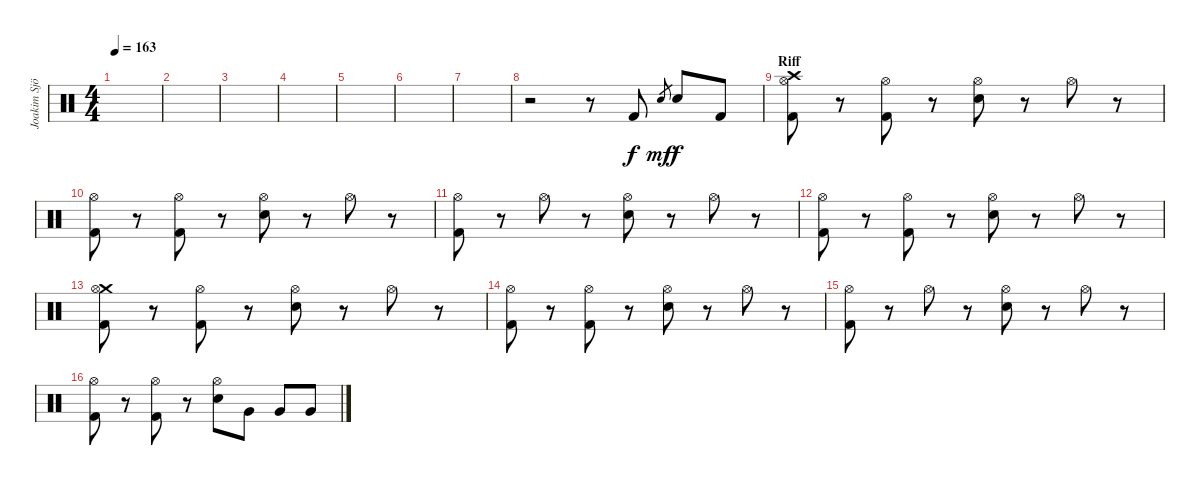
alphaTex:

\track ("Joakim Sjöberg" "Joakim Sjö") {instrument percussion}
\staff {score}
\articulation defaults
\ts (4 4)
\tempo 163
\clef neutral
\ks c
|
|
|
|
|
|
|
r.2 r.8 "Kick (hit) 2".8 "Electric Snare (hit)".8{gr dy mf} "Electric Snare (hit)".8{dy f} "Kick (hit) 2".8 |
\section ("" "Riff")
("Crash high (hit)" "Hi-Hat (open)" "Kick (hit) 2").8 r.8 ("Hi-Hat (open)" "Kick (hit) 2").8 r.8 ("Hi-Hat (open)" "Electric Snare (hit)").8 r.8 "Hi-Hat (open)".8 r.8 |
("Hi-Hat (open)" "Kick (hit) 2").8 r.8 ("Hi-Hat (open)" "Kick (hit) 2").8 r.8 ("Hi-Hat (open)" "Electric Snare (hit)").8 r.8 "Hi-Hat (open)".8 r.8 |
("Hi-Hat (open)" "Kick (hit) 2").8 r.8 "Hi-Hat (open)".8 r.8 ("Hi-Hat (open)" "Electric Snare (hit)").8 r.8 "Hi-Hat (open)".8 r.8 |
("Hi-Hat (open)" "Kick (hit) 2").8 r.8 ("Hi-Hat (open)" "Kick (hit) 2").8 r.8 ("Hi-Hat (open)" "Electric Snare (hit)").8 r.8 "Hi-Hat (open)".8 r.8 |
("Crash medium (hit)" "Hi-Hat (open)" "Kick (hit) 2").8 r.8 ("Hi-Hat (open)" "Kick (hit) 2").8 r.8 ("Hi-Hat (open)" "Electric Snare (hit)").8 r.8 "Hi-Hat (open)".8 r.8 |
("Hi-Hat (open)" "Kick (hit) 2").8 r.8 ("Hi-Hat (open)" "Kick (hit) 2").8 r.8 ("Hi-Hat (open)" "Electric Snare (hit)").8 r.8 "Hi-Hat (open)".8 r.8 |
("Hi-Hat (open)" "Kick (hit) 2").8 r.8 "Hi-Hat (open)".8 r.8 ("Hi-Hat (open)" "Electric Snare (hit)").8 r.8 "Hi-Hat (open)".8 r.8 |
("Hi-Hat (open)" "Kick (hit) 2").8 r.8 ("Hi-Hat (open)" "Kick (hit) 2").8 r.8 ("Hi-Hat (open)" "Electric Snare (hit)").8 "Very Low Tom (hit)".8 "Very Low Tom (hit)".8 "Very Low Tom (hit)".8
